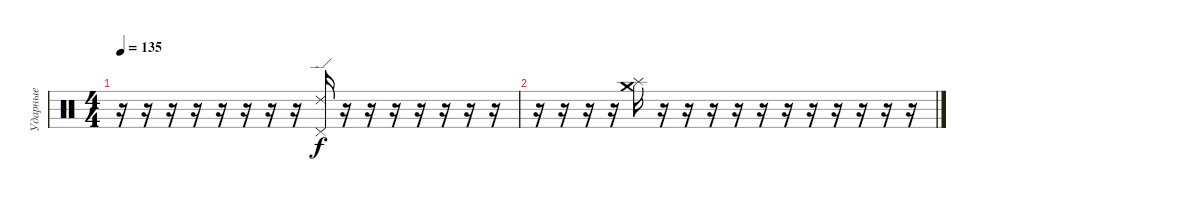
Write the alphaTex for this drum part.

\track ("Ударные" "Ударные") {instrument percussion}
\staff {score}
\articulation defaults
\ts (4 4)
\tempo 135
\clef neutral
\ks c
r.16{dy f} r.16 r.16 r.16 r.16 r.16 r.16 r.16 ("Ride (edge) 2" "Pedal Hi-Hat (hit)").16 r.16 r.16 r.16 r.16 r.16 r.16 r.16 |
r.16 r.16 r.16 r.16 ("Splash (hit)" "Crash medium (hit)").16 r.16 r.16 r.16 r.16 r.16 r.16 r.16 r.16 r.16 r.16 r.16
